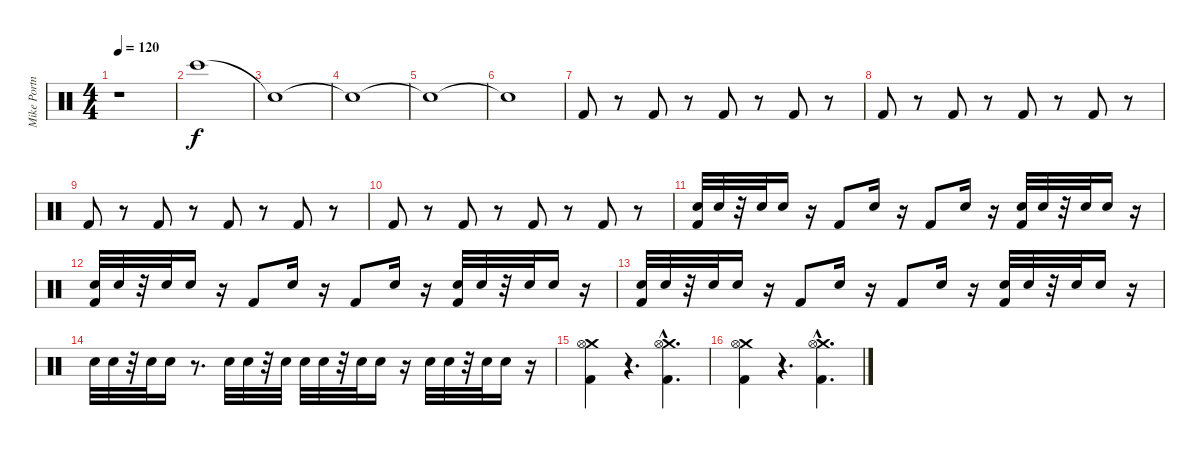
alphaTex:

\track ("Mike Portnoy - Batterie" "Mike Portn") {instrument percussion}
\staff {score}
\articulation defaults
\ts (4 4)
\tempo 120
\clef neutral
\ks c
r.1{dy f} |
"Bongo High (hit)".1{volume 0} |
"Snare (hit)"{t}.1 |
"Snare (hit)"{t}.1 |
"Snare (hit)"{t}.1 |
"Snare (hit)"{t}.1 |
"Kick (hit) 2".8{volume 7} r.8 "Kick (hit) 2".8 r.8 "Kick (hit) 2".8 r.8 "Kick (hit) 2".8 r.8 |
"Kick (hit) 2".8 r.8 "Kick (hit) 2".8 r.8 "Kick (hit) 2".8 r.8 "Kick (hit) 2".8 r.8 |
"Kick (hit) 2".8 r.8 "Kick (hit) 2".8 r.8 "Kick (hit) 2".8 r.8 "Kick (hit) 2".8 r.8 |
"Kick (hit) 2".8 r.8 "Kick (hit) 2".8 r.8 "Kick (hit) 2".8 r.8 "Kick (hit) 2".8 r.8 |
("Snare (hit) 2" "Kick (hit) 2").32 "Snare (hit) 2".32 r.32 "Snare (hit) 2".32 "Snare (hit) 2".16 r.16 "Kick (hit) 2".8 "Snare (hit) 2".16 r.16 "Kick (hit) 2".8 "Snare (hit) 2".16 r.16 ("Snare (hit) 2" "Kick (hit) 2").32 "Snare (hit) 2".32 r.32 "Snare (hit) 2".32 "Snare (hit) 2".16 r.16 |
("Snare (hit) 2" "Kick (hit) 2").32 "Snare (hit) 2".32 r.32 "Snare (hit) 2".32 "Snare (hit) 2".16 r.16 "Kick (hit) 2".8 "Snare (hit) 2".16 r.16 "Kick (hit) 2".8 "Snare (hit) 2".16 r.16 ("Snare (hit) 2" "Kick (hit) 2").32 "Snare (hit) 2".32 r.32 "Snare (hit) 2".32 "Snare (hit) 2".16 r.16 |
("Snare (hit) 2" "Kick (hit) 2").32{volume 7} "Snare (hit) 2".32 r.32 "Snare (hit) 2".32{volume 7} "Snare (hit) 2".16 r.16 "Kick (hit) 2".8{volume 7} "Snare (hit) 2".16{volume 7} r.16 "Kick (hit) 2".8{volume 8} "Snare (hit) 2".16{volume 8} r.16 ("Snare (hit) 2" "Kick (hit) 2").32{volume 8} "Snare (hit) 2".32 r.32 "Snare (hit) 2".32{volume 8} "Snare (hit) 2".16 r.16 |
"Snare (hit) 2".32{volume 8} "Snare (hit) 2".32{volume 8} r.32 "Snare (hit) 2".32 "Snare (hit) 2".16{volume 9} r.8{d} "Snare (hit) 2".32{volume 9} "Snare (hit) 2".32 r.32 "Snare (hit) 2".32{volume 9} "Snare (hit) 2".32 "Snare (hit) 2".32{volume 9} r.32 "Snare (hit) 2".32 "Snare (hit) 2".16{volume 9} r.16 "Snare (hit) 2".32{volume 10} "Snare (hit) 2".32{volume 10} r.32 "Snare (hit) 2".32 "Snare (hit) 2".16{volume 10} r.16 |
("Crash medium (hit)" "Hi-Hat (open)" "Kick (hit) 2").4{volume 10} r.4{d} ("Crash medium (hit)"{hac} "Hi-Hat (open)"{hac} "Kick (hit) 2"{hac}).4{d} |
("Crash medium (hit)" "Hi-Hat (open)" "Kick (hit) 2").4 r.4{d} ("Crash medium (hit)"{hac} "Hi-Hat (open)"{hac} "Kick (hit) 2"{hac}).4{d}
